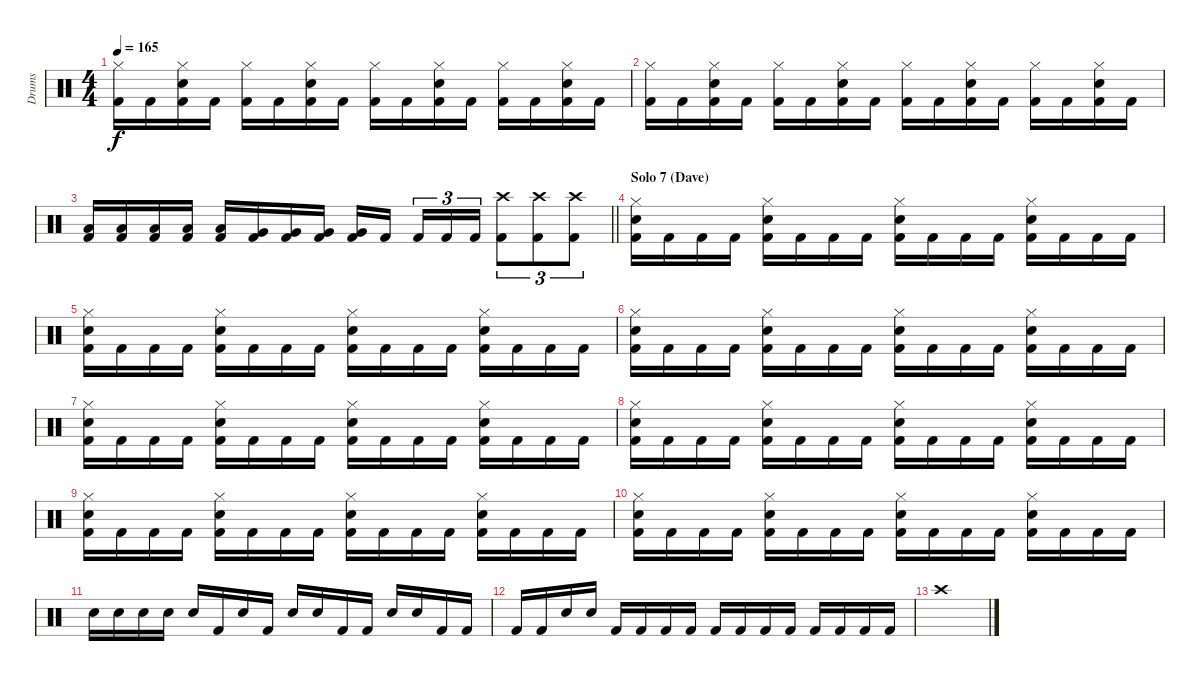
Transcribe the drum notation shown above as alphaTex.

\track ("Drums" "Drums") {instrument percussion}
\staff {score}
\articulation defaults
\ts (4 4)
\tempo 165
\clef neutral
\ks c
("Hi-Hat (closed)" "Kick (hit) 2").16{dy f} "Kick (hit) 2".16 ("Hi-Hat (closed)" "Snare (hit) 2" "Kick (hit) 2").16 "Kick (hit) 2".16 ("Hi-Hat (closed)" "Kick (hit) 2").16 "Kick (hit) 2".16 ("Hi-Hat (closed)" "Snare (hit) 2" "Kick (hit) 2").16 "Kick (hit) 2".16 ("Hi-Hat (closed)" "Kick (hit) 2").16 "Kick (hit) 2".16 ("Hi-Hat (closed)" "Snare (hit) 2" "Kick (hit) 2").16 "Kick (hit) 2".16 ("Hi-Hat (closed)" "Kick (hit) 2").16 "Kick (hit) 2".16 ("Hi-Hat (closed)" "Snare (hit) 2" "Kick (hit) 2").16 "Kick (hit) 2".16 |
("Hi-Hat (closed)" "Kick (hit) 2").16 "Kick (hit) 2".16 ("Hi-Hat (closed)" "Snare (hit) 2" "Kick (hit) 2").16 "Kick (hit) 2".16 ("Hi-Hat (closed)" "Kick (hit) 2").16 "Kick (hit) 2".16 ("Hi-Hat (closed)" "Snare (hit) 2" "Kick (hit) 2").16 "Kick (hit) 2".16 ("Hi-Hat (closed)" "Kick (hit) 2").16 "Kick (hit) 2".16 ("Hi-Hat (closed)" "Snare (hit) 2" "Kick (hit) 2").16 "Kick (hit) 2".16 ("Hi-Hat (closed)" "Kick (hit) 2").16 "Kick (hit) 2".16 ("Hi-Hat (closed)" "Snare (hit) 2" "Kick (hit) 2").16 "Kick (hit) 2".16 |
\barLineRight lightlight
("Low Tom (hit)" "Kick (hit) 2").16 ("Low Tom (hit)" "Kick (hit) 2").16 ("Low Tom (hit)" "Kick (hit) 2").16 ("Low Tom (hit)" "Kick (hit) 2").16 ("Low Tom (hit)" "Kick (hit) 2").16 ("Very Low Tom (hit)" "Kick (hit) 2").16 ("Very Low Tom (hit)" "Kick (hit) 2").16 ("Very Low Tom (hit)" "Kick (hit) 2").16 ("Very Low Tom (hit)" "Kick (hit) 2").16 "Kick (hit) 2".16{beam splitsecondary} "Kick (hit) 2".16{tu (3 2)} "Kick (hit) 2".16{tu (3 2)} "Kick (hit) 2".16{tu (3 2)} ("Crash high (hit)" "Kick (hit) 2").8{tu (3 2)} ("Crash high (hit)" "Kick (hit) 2").8{tu (3 2)} ("Crash high (hit)" "Kick (hit) 2").8{tu (3 2)} |
\section ("" "Solo 7 (Dave)")
("Hi-Hat (closed)" "Snare (hit) 2" "Kick (hit) 2").16 "Kick (hit) 2".16 "Kick (hit) 2".16 "Kick (hit) 2".16 ("Hi-Hat (closed)" "Snare (hit) 2" "Kick (hit) 2").16 "Kick (hit) 2".16 "Kick (hit) 2".16 "Kick (hit) 2".16 ("Hi-Hat (closed)" "Snare (hit) 2" "Kick (hit) 2").16 "Kick (hit) 2".16 "Kick (hit) 2".16 "Kick (hit) 2".16 ("Hi-Hat (closed)" "Snare (hit) 2" "Kick (hit) 2").16 "Kick (hit) 2".16 "Kick (hit) 2".16 "Kick (hit) 2".16 |
("Hi-Hat (closed)" "Snare (hit) 2" "Kick (hit) 2").16 "Kick (hit) 2".16 "Kick (hit) 2".16 "Kick (hit) 2".16 ("Hi-Hat (closed)" "Snare (hit) 2" "Kick (hit) 2").16 "Kick (hit) 2".16 "Kick (hit) 2".16 "Kick (hit) 2".16 ("Hi-Hat (closed)" "Snare (hit) 2" "Kick (hit) 2").16 "Kick (hit) 2".16 "Kick (hit) 2".16 "Kick (hit) 2".16 ("Hi-Hat (closed)" "Snare (hit) 2" "Kick (hit) 2").16 "Kick (hit) 2".16 "Kick (hit) 2".16 "Kick (hit) 2".16 |
("Hi-Hat (closed)" "Snare (hit) 2" "Kick (hit) 2").16 "Kick (hit) 2".16 "Kick (hit) 2".16 "Kick (hit) 2".16 ("Hi-Hat (closed)" "Snare (hit) 2" "Kick (hit) 2").16 "Kick (hit) 2".16 "Kick (hit) 2".16 "Kick (hit) 2".16 ("Hi-Hat (closed)" "Snare (hit) 2" "Kick (hit) 2").16 "Kick (hit) 2".16 "Kick (hit) 2".16 "Kick (hit) 2".16 ("Hi-Hat (closed)" "Snare (hit) 2" "Kick (hit) 2").16 "Kick (hit) 2".16 "Kick (hit) 2".16 "Kick (hit) 2".16 |
("Hi-Hat (closed)" "Snare (hit) 2" "Kick (hit) 2").16 "Kick (hit) 2".16 "Kick (hit) 2".16 "Kick (hit) 2".16 ("Hi-Hat (closed)" "Snare (hit) 2" "Kick (hit) 2").16 "Kick (hit) 2".16 "Kick (hit) 2".16 "Kick (hit) 2".16 ("Hi-Hat (closed)" "Snare (hit) 2" "Kick (hit) 2").16 "Kick (hit) 2".16 "Kick (hit) 2".16 "Kick (hit) 2".16 ("Hi-Hat (closed)" "Snare (hit) 2" "Kick (hit) 2").16 "Kick (hit) 2".16 "Kick (hit) 2".16 "Kick (hit) 2".16 |
("Hi-Hat (closed)" "Snare (hit) 2" "Kick (hit) 2").16 "Kick (hit) 2".16 "Kick (hit) 2".16 "Kick (hit) 2".16 ("Hi-Hat (closed)" "Snare (hit) 2" "Kick (hit) 2").16 "Kick (hit) 2".16 "Kick (hit) 2".16 "Kick (hit) 2".16 ("Hi-Hat (closed)" "Snare (hit) 2" "Kick (hit) 2").16 "Kick (hit) 2".16 "Kick (hit) 2".16 "Kick (hit) 2".16 ("Hi-Hat (closed)" "Snare (hit) 2" "Kick (hit) 2").16 "Kick (hit) 2".16 "Kick (hit) 2".16 "Kick (hit) 2".16 |
("Hi-Hat (closed)" "Snare (hit) 2" "Kick (hit) 2").16 "Kick (hit) 2".16 "Kick (hit) 2".16 "Kick (hit) 2".16 ("Hi-Hat (closed)" "Snare (hit) 2" "Kick (hit) 2").16 "Kick (hit) 2".16 "Kick (hit) 2".16 "Kick (hit) 2".16 ("Hi-Hat (closed)" "Snare (hit) 2" "Kick (hit) 2").16 "Kick (hit) 2".16 "Kick (hit) 2".16 "Kick (hit) 2".16 ("Hi-Hat (closed)" "Snare (hit) 2" "Kick (hit) 2").16 "Kick (hit) 2".16 "Kick (hit) 2".16 "Kick (hit) 2".16 |
("Hi-Hat (closed)" "Snare (hit) 2" "Kick (hit) 2").16 "Kick (hit) 2".16 "Kick (hit) 2".16 "Kick (hit) 2".16 ("Hi-Hat (closed)" "Snare (hit) 2" "Kick (hit) 2").16 "Kick (hit) 2".16 "Kick (hit) 2".16 "Kick (hit) 2".16 ("Hi-Hat (closed)" "Snare (hit) 2" "Kick (hit) 2").16 "Kick (hit) 2".16 "Kick (hit) 2".16 "Kick (hit) 2".16 ("Hi-Hat (closed)" "Snare (hit) 2" "Kick (hit) 2").16 "Kick (hit) 2".16 "Kick (hit) 2".16 "Kick (hit) 2".16 |
"Snare (hit) 2".16 "Snare (hit) 2".16 "Snare (hit) 2".16 "Snare (hit) 2".16 "Snare (hit) 2".16 "Kick (hit) 2".16 "Snare (hit) 2".16 "Kick (hit) 2".16 "Snare (hit) 2".16 "Snare (hit) 2".16 "Kick (hit) 2".16 "Kick (hit) 2".16 "Snare (hit) 2".16 "Snare (hit) 2".16 "Kick (hit) 2".16 "Kick (hit) 2".16 |
"Kick (hit) 2".16 "Kick (hit) 2".16 "Snare (hit) 2".16 "Snare (hit) 2".16 "Kick (hit) 2".16 "Kick (hit) 2".16 "Kick (hit) 2".16 "Kick (hit) 2".16 "Kick (hit) 2".16 "Kick (hit) 2".16 "Kick (hit) 2".16 "Kick (hit) 2".16 "Kick (hit) 2".16 "Kick (hit) 2".16 "Kick (hit) 2".16 "Kick (hit) 2".16 |
"Crash high (hit)".1
